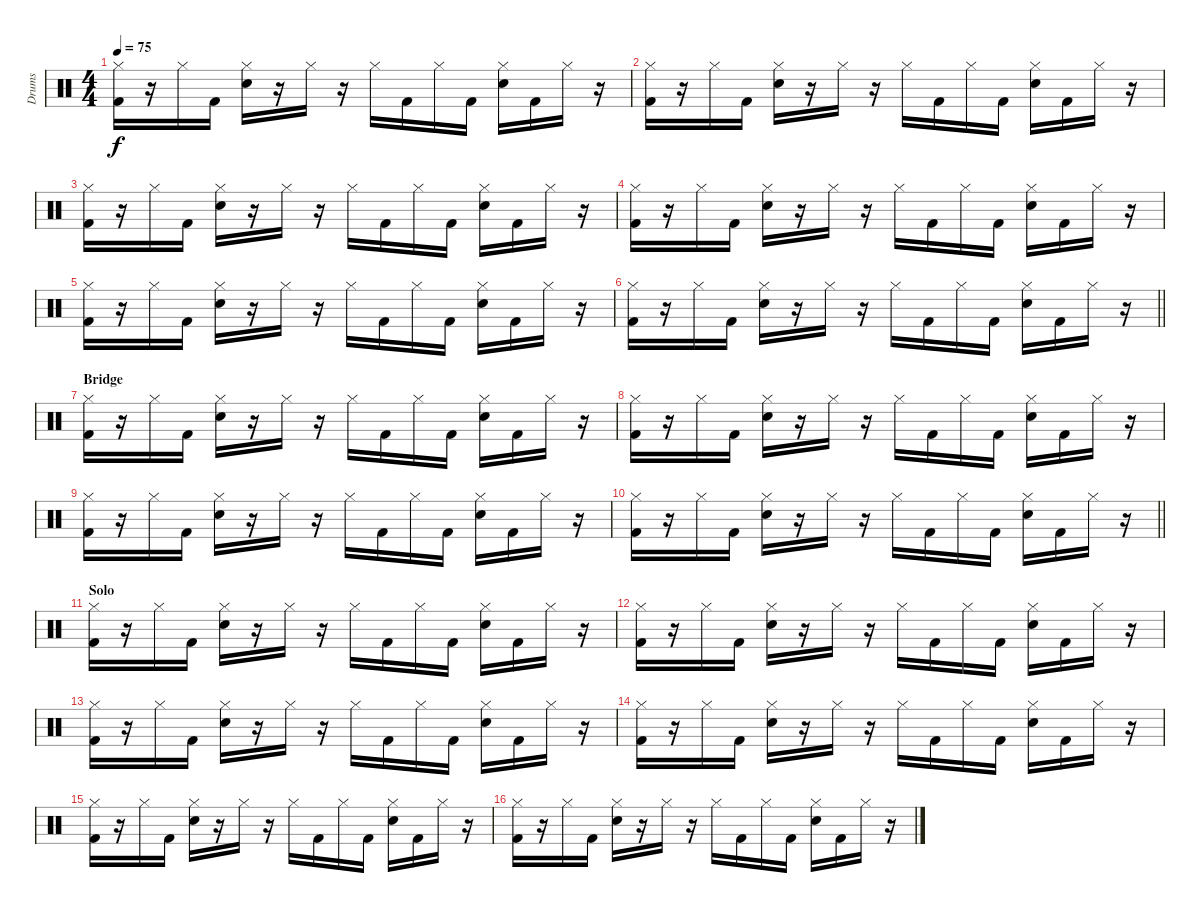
\track ("Drums" "Drums") {instrument percussion}
\staff {score}
\articulation defaults
\ts (4 4)
\tempo 75
\clef neutral
\ks c
("Hi-Hat (closed)" "Kick (hit) 2").16{dy f} r.16 "Hi-Hat (closed)".16 "Kick (hit) 2".16 ("Hi-Hat (closed)" "Electric Snare (hit)").16 r.16 "Hi-Hat (closed)".16 r.16 "Hi-Hat (closed)".16 "Kick (hit) 2".16 "Hi-Hat (closed)".16 "Kick (hit) 2".16 ("Hi-Hat (closed)" "Electric Snare (hit)").16 "Kick (hit) 2".16 "Hi-Hat (closed)".16 r.16 |
("Hi-Hat (closed)" "Kick (hit) 2").16 r.16 "Hi-Hat (closed)".16 "Kick (hit) 2".16 ("Hi-Hat (closed)" "Electric Snare (hit)").16 r.16 "Hi-Hat (closed)".16 r.16 "Hi-Hat (closed)".16 "Kick (hit) 2".16 "Hi-Hat (closed)".16 "Kick (hit) 2".16 ("Hi-Hat (closed)" "Electric Snare (hit)").16 "Kick (hit) 2".16 "Hi-Hat (closed)".16 r.16 |
("Hi-Hat (closed)" "Kick (hit) 2").16 r.16 "Hi-Hat (closed)".16 "Kick (hit) 2".16 ("Hi-Hat (closed)" "Electric Snare (hit)").16 r.16 "Hi-Hat (closed)".16 r.16 "Hi-Hat (closed)".16 "Kick (hit) 2".16 "Hi-Hat (closed)".16 "Kick (hit) 2".16 ("Hi-Hat (closed)" "Electric Snare (hit)").16 "Kick (hit) 2".16 "Hi-Hat (closed)".16 r.16 |
("Hi-Hat (closed)" "Kick (hit) 2").16 r.16 "Hi-Hat (closed)".16 "Kick (hit) 2".16 ("Hi-Hat (closed)" "Electric Snare (hit)").16 r.16 "Hi-Hat (closed)".16 r.16 "Hi-Hat (closed)".16 "Kick (hit) 2".16 "Hi-Hat (closed)".16 "Kick (hit) 2".16 ("Hi-Hat (closed)" "Electric Snare (hit)").16 "Kick (hit) 2".16 "Hi-Hat (closed)".16 r.16 |
("Hi-Hat (closed)" "Kick (hit) 2").16 r.16 "Hi-Hat (closed)".16 "Kick (hit) 2".16 ("Hi-Hat (closed)" "Electric Snare (hit)").16 r.16 "Hi-Hat (closed)".16 r.16 "Hi-Hat (closed)".16 "Kick (hit) 2".16 "Hi-Hat (closed)".16 "Kick (hit) 2".16 ("Hi-Hat (closed)" "Electric Snare (hit)").16 "Kick (hit) 2".16 "Hi-Hat (closed)".16 r.16 |
\barLineRight lightlight
("Hi-Hat (closed)" "Kick (hit) 2").16 r.16 "Hi-Hat (closed)".16 "Kick (hit) 2".16 ("Hi-Hat (closed)" "Electric Snare (hit)").16 r.16 "Hi-Hat (closed)".16 r.16 "Hi-Hat (closed)".16 "Kick (hit) 2".16 "Hi-Hat (closed)".16 "Kick (hit) 2".16 ("Hi-Hat (closed)" "Electric Snare (hit)").16 "Kick (hit) 2".16 "Hi-Hat (closed)".16 r.16 |
\section ("" "Bridge")
("Hi-Hat (closed)" "Kick (hit) 2").16 r.16 "Hi-Hat (closed)".16 "Kick (hit) 2".16 ("Hi-Hat (closed)" "Electric Snare (hit)").16 r.16 "Hi-Hat (closed)".16 r.16 "Hi-Hat (closed)".16 "Kick (hit) 2".16 "Hi-Hat (closed)".16 "Kick (hit) 2".16 ("Hi-Hat (closed)" "Electric Snare (hit)").16 "Kick (hit) 2".16 "Hi-Hat (closed)".16 r.16 |
("Hi-Hat (closed)" "Kick (hit) 2").16 r.16 "Hi-Hat (closed)".16 "Kick (hit) 2".16 ("Hi-Hat (closed)" "Electric Snare (hit)").16 r.16 "Hi-Hat (closed)".16 r.16 "Hi-Hat (closed)".16 "Kick (hit) 2".16 "Hi-Hat (closed)".16 "Kick (hit) 2".16 ("Hi-Hat (closed)" "Electric Snare (hit)").16 "Kick (hit) 2".16 "Hi-Hat (closed)".16 r.16 |
("Hi-Hat (closed)" "Kick (hit) 2").16 r.16 "Hi-Hat (closed)".16 "Kick (hit) 2".16 ("Hi-Hat (closed)" "Electric Snare (hit)").16 r.16 "Hi-Hat (closed)".16 r.16 "Hi-Hat (closed)".16 "Kick (hit) 2".16 "Hi-Hat (closed)".16 "Kick (hit) 2".16 ("Hi-Hat (closed)" "Electric Snare (hit)").16 "Kick (hit) 2".16 "Hi-Hat (closed)".16 r.16 |
\barLineRight lightlight
("Hi-Hat (closed)" "Kick (hit) 2").16 r.16 "Hi-Hat (closed)".16 "Kick (hit) 2".16 ("Hi-Hat (closed)" "Electric Snare (hit)").16 r.16 "Hi-Hat (closed)".16 r.16 "Hi-Hat (closed)".16 "Kick (hit) 2".16 "Hi-Hat (closed)".16 "Kick (hit) 2".16 ("Hi-Hat (closed)" "Electric Snare (hit)").16 "Kick (hit) 2".16 "Hi-Hat (closed)".16 r.16 |
\section ("" "Solo")
("Hi-Hat (closed)" "Kick (hit) 2").16 r.16 "Hi-Hat (closed)".16 "Kick (hit) 2".16 ("Hi-Hat (closed)" "Electric Snare (hit)").16 r.16 "Hi-Hat (closed)".16 r.16 "Hi-Hat (closed)".16 "Kick (hit) 2".16 "Hi-Hat (closed)".16 "Kick (hit) 2".16 ("Hi-Hat (closed)" "Electric Snare (hit)").16 "Kick (hit) 2".16 "Hi-Hat (closed)".16 r.16 |
("Hi-Hat (closed)" "Kick (hit) 2").16 r.16 "Hi-Hat (closed)".16 "Kick (hit) 2".16 ("Hi-Hat (closed)" "Electric Snare (hit)").16 r.16 "Hi-Hat (closed)".16 r.16 "Hi-Hat (closed)".16 "Kick (hit) 2".16 "Hi-Hat (closed)".16 "Kick (hit) 2".16 ("Hi-Hat (closed)" "Electric Snare (hit)").16 "Kick (hit) 2".16 "Hi-Hat (closed)".16 r.16 |
("Hi-Hat (closed)" "Kick (hit) 2").16 r.16 "Hi-Hat (closed)".16 "Kick (hit) 2".16 ("Hi-Hat (closed)" "Electric Snare (hit)").16 r.16 "Hi-Hat (closed)".16 r.16 "Hi-Hat (closed)".16 "Kick (hit) 2".16 "Hi-Hat (closed)".16 "Kick (hit) 2".16 ("Hi-Hat (closed)" "Electric Snare (hit)").16 "Kick (hit) 2".16 "Hi-Hat (closed)".16 r.16 |
("Hi-Hat (closed)" "Kick (hit) 2").16 r.16 "Hi-Hat (closed)".16 "Kick (hit) 2".16 ("Hi-Hat (closed)" "Electric Snare (hit)").16 r.16 "Hi-Hat (closed)".16 r.16 "Hi-Hat (closed)".16 "Kick (hit) 2".16 "Hi-Hat (closed)".16 "Kick (hit) 2".16 ("Hi-Hat (closed)" "Electric Snare (hit)").16 "Kick (hit) 2".16 "Hi-Hat (closed)".16 r.16 |
("Hi-Hat (closed)" "Kick (hit) 2").16 r.16 "Hi-Hat (closed)".16 "Kick (hit) 2".16 ("Hi-Hat (closed)" "Electric Snare (hit)").16 r.16 "Hi-Hat (closed)".16 r.16 "Hi-Hat (closed)".16 "Kick (hit) 2".16 "Hi-Hat (closed)".16 "Kick (hit) 2".16 ("Hi-Hat (closed)" "Electric Snare (hit)").16 "Kick (hit) 2".16 "Hi-Hat (closed)".16 r.16 |
("Hi-Hat (closed)" "Kick (hit) 2").16 r.16 "Hi-Hat (closed)".16 "Kick (hit) 2".16 ("Hi-Hat (closed)" "Electric Snare (hit)").16 r.16 "Hi-Hat (closed)".16 r.16 "Hi-Hat (closed)".16 "Kick (hit) 2".16 "Hi-Hat (closed)".16 "Kick (hit) 2".16 ("Hi-Hat (closed)" "Electric Snare (hit)").16 "Kick (hit) 2".16 "Hi-Hat (closed)".16 r.16
